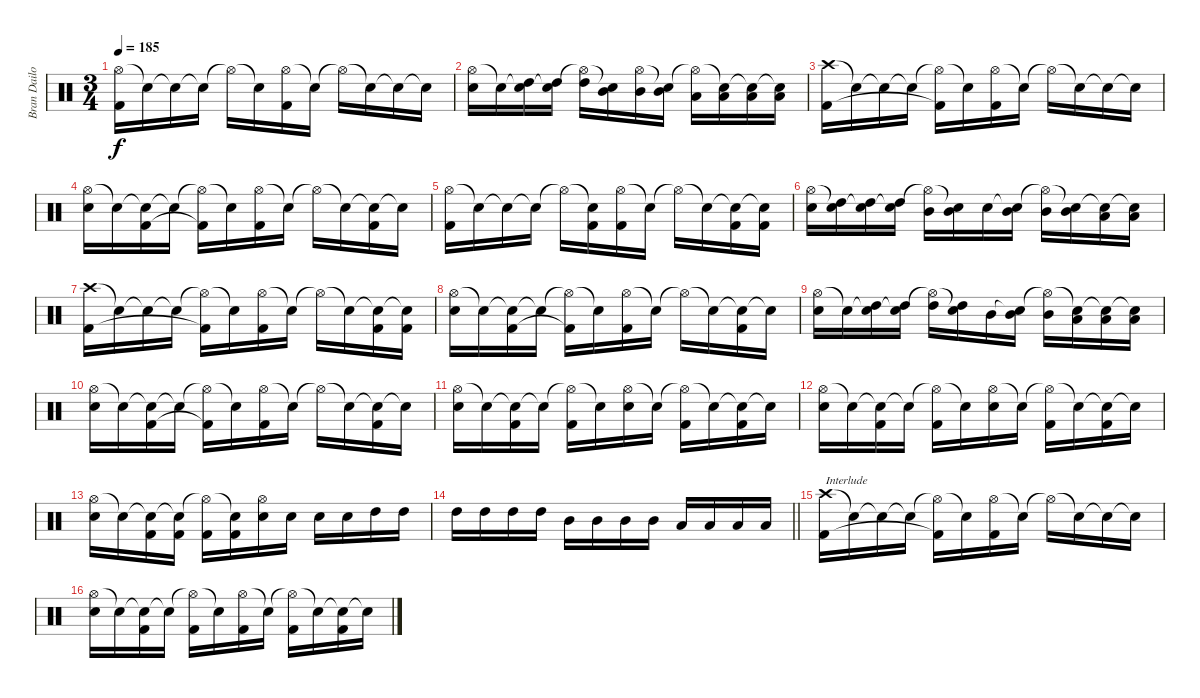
\track ("Bran Dailor" "Bran Dailo") {instrument percussion}
\staff {score}
\articulation defaults
\ts (3 4)
\tempo 185
\clef neutral
\ks c
("Hi-Hat (open)" "Kick (hit) 2").16{dy f} "Snare (hit)"{t}.16 "Snare (hit)"{t}.16 "Snare (hit)"{t}.16 "Hi-Hat (open)"{t}.16 "Snare (hit)"{t}.16 ("Hi-Hat (open)" "Kick (hit) 2").16 "Snare (hit)"{t}.16 "Hi-Hat (open)"{t}.16 "Snare (hit)"{t}.16 "Snare (hit)"{t}.16 "Snare (hit)"{t}.16 |
("Hi-Hat (open)" "Electric Snare (hit)").16 "Snare (hit)"{t}.16 ("Snare (hit)"{t} "High Tom (hit)").16 ("Snare (hit)"{t} "High Tom (hit)").16 ("Hi-Hat (open)"{t} "High Tom (hit)").16 ("Snare (hit)"{t} "Mid Tom (hit)").16 ("Hi-Hat (open)" "Mid Tom (hit)").16 ("Snare (hit)"{t} "Mid Tom (hit)").16 ("Hi-Hat (open)"{t} "Low Tom (hit)").16 ("Snare (hit)"{t} "Low Tom (hit)").16 ("Snare (hit)"{t} "Low Tom (hit)").16 ("Snare (hit)"{t} "Low Tom (hit)").16 |
("Crash high (hit)" "Kick (hit) 2").16 "Snare (hit)"{t}.16 "Snare (hit)"{t}.16 "Snare (hit)"{t}.16 ("Hi-Hat (open)"{t} "Kick (hit) 2"{t}).16 "Snare (hit)"{t}.16 ("Hi-Hat (open)" "Kick (hit) 2").16 "Snare (hit)"{t}.16 "Hi-Hat (open)"{t}.16 "Snare (hit)"{t}.16 "Snare (hit)"{t}.16 "Snare (hit)"{t}.16 |
("Hi-Hat (open)" "Electric Snare (hit)").16 "Snare (hit)"{t}.16 ("Snare (hit)"{t} "Kick (hit) 2").16 "Snare (hit)"{t}.16 ("Hi-Hat (open)"{t} "Kick (hit) 2"{t}).16 "Snare (hit)"{t}.16 ("Hi-Hat (open)" "Kick (hit) 2").16 "Snare (hit)"{t}.16 "Hi-Hat (open)"{t}.16 "Snare (hit)"{t}.16 ("Snare (hit)"{t} "Kick (hit) 2").16 "Snare (hit)"{t}.16 |
("Hi-Hat (open)" "Kick (hit) 2").16 "Snare (hit)"{t}.16 "Snare (hit)"{t}.16 "Snare (hit)"{t}.16 "Hi-Hat (open)"{t}.16 ("Snare (hit)"{t} "Kick (hit) 2").16 ("Hi-Hat (open)" "Kick (hit) 2").16 "Snare (hit)"{t}.16 "Hi-Hat (open)"{t}.16 "Snare (hit)"{t}.16 ("Snare (hit)"{t} "Kick (hit) 2").16 ("Snare (hit)"{t} "Kick (hit) 2").16 |
("Hi-Hat (open)" "Electric Snare (hit)").16 ("Snare (hit)"{t} "High Tom (hit)").16 ("Snare (hit)"{t} "High Tom (hit)").16 ("Snare (hit)"{t} "High Tom (hit)").16 ("Hi-Hat (open)"{t} "Mid Tom (hit)").16 ("Snare (hit)"{t} "Mid Tom (hit)").16 "Electric Snare (hit)".16 ("Snare (hit)"{t} "Mid Tom (hit)").16 ("Hi-Hat (open)"{t} "Mid Tom (hit)").16 ("Snare (hit)"{t} "Mid Tom (hit)").16 ("Snare (hit)"{t} "Low Tom (hit)").16 ("Snare (hit)"{t} "Low Tom (hit)").16 |
("Crash high (hit)" "Kick (hit) 2").16 "Snare (hit)"{t}.16 "Snare (hit)"{t}.16 "Snare (hit)"{t}.16 ("Hi-Hat (open)"{t} "Kick (hit) 2"{t}).16 "Snare (hit)"{t}.16 ("Hi-Hat (open)" "Kick (hit) 2").16 "Snare (hit)"{t}.16 "Hi-Hat (open)"{t}.16 "Snare (hit)"{t}.16 ("Snare (hit)"{t} "Kick (hit) 2").16 ("Snare (hit)"{t} "Kick (hit) 2").16 |
("Hi-Hat (open)" "Electric Snare (hit)").16 "Snare (hit)"{t}.16 ("Snare (hit)"{t} "Kick (hit) 2").16 "Snare (hit)"{t}.16 ("Hi-Hat (open)"{t} "Kick (hit) 2"{t}).16 "Snare (hit)"{t}.16 ("Hi-Hat (open)" "Kick (hit) 2").16 "Snare (hit)"{t}.16 "Hi-Hat (open)"{t}.16 "Snare (hit)"{t}.16 ("Snare (hit)"{t} "Kick (hit) 2").16 "Snare (hit)"{t}.16 |
("Hi-Hat (open)" "Electric Snare (hit)").16 "Snare (hit)"{t}.16 ("Snare (hit)"{t} "High Tom (hit)").16 ("Snare (hit)"{t} "High Tom (hit)").16 ("Hi-Hat (open)"{t} "High Tom (hit)").16 ("Snare (hit)"{t} "High Tom (hit)").16 "Mid Tom (hit)".16 ("Snare (hit)"{t} "Mid Tom (hit)").16 ("Hi-Hat (open)"{t} "Mid Tom (hit)").16 ("Snare (hit)"{t} "Low Tom (hit)").16 ("Snare (hit)"{t} "Low Tom (hit)").16 ("Snare (hit)"{t} "Low Tom (hit)").16 |
("Hi-Hat (open)" "Electric Snare (hit)").16 "Snare (hit)"{t}.16 ("Snare (hit)"{t} "Kick (hit) 2").16 "Snare (hit)"{t}.16 ("Hi-Hat (open)"{t} "Kick (hit) 2"{t}).16 "Snare (hit)"{t}.16 ("Hi-Hat (open)" "Kick (hit) 2").16 "Snare (hit)"{t}.16 "Hi-Hat (open)"{t}.16 "Snare (hit)"{t}.16 ("Snare (hit)"{t} "Kick (hit) 2").16 "Snare (hit)"{t}.16 |
("Hi-Hat (open)" "Electric Snare (hit)").16 "Snare (hit)"{t}.16 ("Snare (hit)"{t} "Kick (hit) 2").16 "Snare (hit)"{t}.16 ("Hi-Hat (open)"{t} "Kick (hit) 2").16 "Snare (hit)"{t}.16 ("Hi-Hat (open)" "Electric Snare (hit)").16 "Snare (hit)"{t}.16 ("Hi-Hat (open)"{t} "Kick (hit) 2").16 "Snare (hit)"{t}.16 ("Snare (hit)"{t} "Kick (hit) 2").16 "Snare (hit)"{t}.16 |
("Hi-Hat (open)" "Electric Snare (hit)").16 "Snare (hit)"{t}.16 ("Snare (hit)"{t} "Kick (hit) 2").16 "Snare (hit)"{t}.16 ("Hi-Hat (open)"{t} "Kick (hit) 2").16 "Snare (hit)"{t}.16 ("Hi-Hat (open)" "Electric Snare (hit)").16 "Snare (hit)"{t}.16 ("Hi-Hat (open)"{t} "Kick (hit) 2").16 "Snare (hit)"{t}.16 ("Snare (hit)"{t} "Kick (hit) 2").16 "Snare (hit)"{t}.16 |
("Hi-Hat (open)" "Electric Snare (hit)").16 "Snare (hit)"{t}.16 ("Snare (hit)"{t} "Kick (hit) 2").16 ("Snare (hit)"{t} "Kick (hit) 2").16 ("Hi-Hat (open)"{t} "Kick (hit) 2").16 ("Snare (hit)"{t} "Kick (hit) 2").16 ("Hi-Hat (open)" "Electric Snare (hit)").16 "Electric Snare (hit)".16 "Electric Snare (hit)".16 "Electric Snare (hit)".16 "High Tom (hit)".16 "High Tom (hit)".16 |
\barLineRight lightlight "High Tom (hit)".16 "High Tom (hit)".16 "High Tom (hit)".16 "High Tom (hit)".16 "Mid Tom (hit)".16 "Mid Tom (hit)".16 "Mid Tom (hit)".16 "Mid Tom (hit)".16 "Low Tom (hit)".16 "Low Tom (hit)".16 "Low Tom (hit)".16 "Low Tom (hit)".16
|
("Crash high (hit)" "Kick (hit) 2").16{txt "Interlude"} "Snare (hit)"{t}.16 "Snare (hit)"{t}.16 "Snare (hit)"{t}.16 ("Hi-Hat (open)"{t} "Kick (hit) 2"{t}).16 "Snare (hit)"{t}.16 ("Hi-Hat (open)" "Kick (hit) 2").16 "Snare (hit)"{t}.16 "Hi-Hat (open)"{t}.16 "Snare (hit)"{t}.16 "Snare (hit)"{t}.16 "Snare (hit)"{t}.16 |
("Hi-Hat (open)" "Electric Snare (hit)").16 "Snare (hit)"{t}.16 ("Snare (hit)"{t} "Kick (hit) 2").16 "Snare (hit)"{t}.16 ("Hi-Hat (open)"{t} "Kick (hit) 2").16 "Snare (hit)"{t}.16 ("Hi-Hat (open)" "Kick (hit) 2").16 "Snare (hit)"{t}.16 ("Hi-Hat (open)"{t} "Kick (hit) 2").16 "Snare (hit)"{t}.16 ("Snare (hit)"{t} "Kick (hit) 2").16 "Snare (hit)"{t}.16
